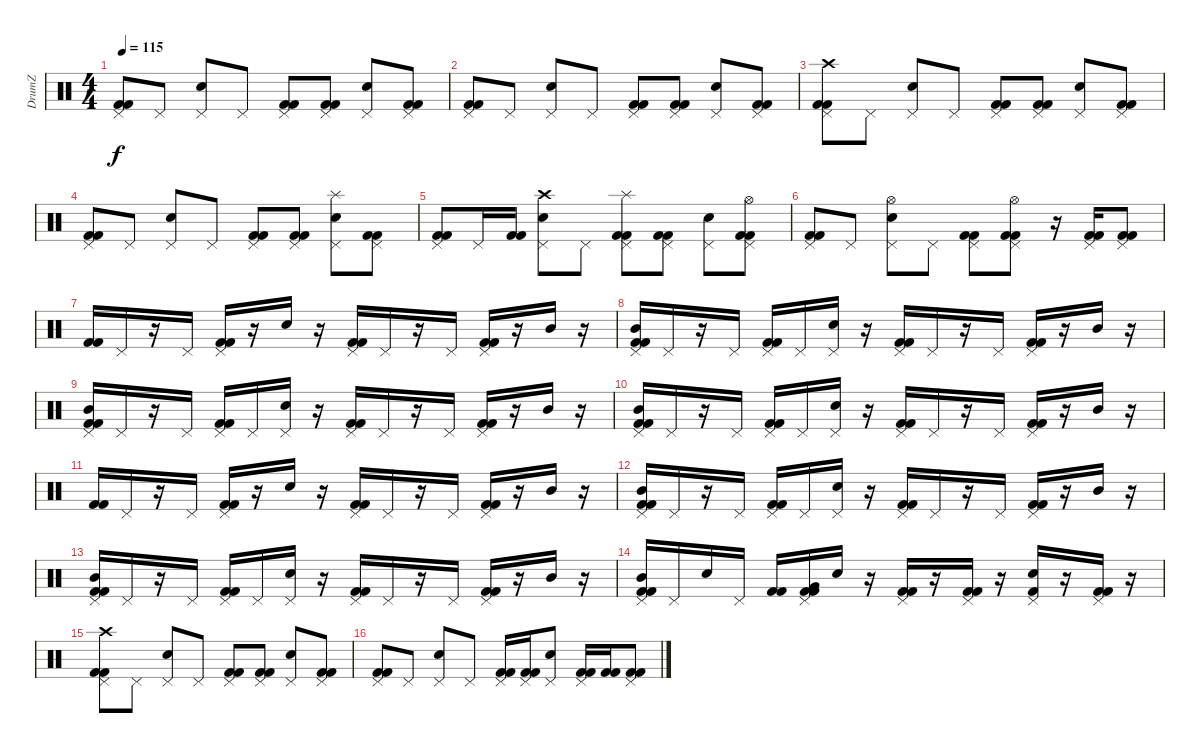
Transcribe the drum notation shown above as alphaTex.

\track ("DrumZ" "DrumZ") {instrument percussion}
\staff {score}
\articulation defaults
\ts (4 4)
\tempo 115
\clef neutral
\ks c
("Pedal Hi-Hat (hit)" "Kick (hit) 2" "Kick (hit) 2").8{dy f} "Pedal Hi-Hat (hit)".8 ("Pedal Hi-Hat (hit)" "Electric Snare (hit)").8 "Pedal Hi-Hat (hit)".8 ("Pedal Hi-Hat (hit)" "Kick (hit) 2" "Kick (hit) 2").8 ("Pedal Hi-Hat (hit)" "Kick (hit) 2" "Kick (hit) 2").8 ("Pedal Hi-Hat (hit)" "Electric Snare (hit)").8 ("Pedal Hi-Hat (hit)" "Kick (hit) 2" "Kick (hit) 2").8 |
("Pedal Hi-Hat (hit)" "Kick (hit) 2" "Kick (hit) 2").8 "Pedal Hi-Hat (hit)".8 ("Pedal Hi-Hat (hit)" "Electric Snare (hit)").8 "Pedal Hi-Hat (hit)".8 ("Pedal Hi-Hat (hit)" "Kick (hit) 2" "Kick (hit) 2").8 ("Pedal Hi-Hat (hit)" "Kick (hit) 2" "Kick (hit) 2").8 ("Pedal Hi-Hat (hit)" "Electric Snare (hit)").8 ("Pedal Hi-Hat (hit)" "Kick (hit) 2" "Kick (hit) 2").8 |
("Pedal Hi-Hat (hit)" "Crash high (hit)" "Kick (hit) 2" "Kick (hit) 2").8 "Pedal Hi-Hat (hit)".8 ("Pedal Hi-Hat (hit)" "Electric Snare (hit)").8 "Pedal Hi-Hat (hit)".8 ("Pedal Hi-Hat (hit)" "Kick (hit) 2" "Kick (hit) 2").8 ("Pedal Hi-Hat (hit)" "Kick (hit) 2" "Kick (hit) 2").8 ("Pedal Hi-Hat (hit)" "Electric Snare (hit)").8 ("Pedal Hi-Hat (hit)" "Kick (hit) 2" "Kick (hit) 2").8 |
("Pedal Hi-Hat (hit)" "Kick (hit) 2" "Kick (hit) 2").8 "Pedal Hi-Hat (hit)".8 ("Pedal Hi-Hat (hit)" "Electric Snare (hit)").8 "Pedal Hi-Hat (hit)".8 ("Pedal Hi-Hat (hit)" "Kick (hit) 2" "Kick (hit) 2").8 ("Pedal Hi-Hat (hit)" "Kick (hit) 2" "Kick (hit) 2").8 ("Pedal Hi-Hat (hit)" "Electric Snare (hit)" "Splash (hit)").8 ("Pedal Hi-Hat (hit)" "Kick (hit) 2" "Kick (hit) 2").8 |
("Pedal Hi-Hat (hit)" "Kick (hit) 2" "Kick (hit) 2").8 "Pedal Hi-Hat (hit)".16 ("Kick (hit) 2" "Kick (hit) 2").16 ("Pedal Hi-Hat (hit)" "Electric Snare (hit)" "Crash high (hit)").8 "Pedal Hi-Hat (hit)".8 ("Pedal Hi-Hat (hit)" "Splash (hit)" "Kick (hit) 2" "Kick (hit) 2").8 ("Pedal Hi-Hat (hit)" "Kick (hit) 2" "Kick (hit) 2").8 ("Pedal Hi-Hat (hit)" "Electric Snare (hit)").8 ("Pedal Hi-Hat (hit)" "Hi-Hat (open)" "Kick (hit) 2" "Kick (hit) 2").8 |
("Pedal Hi-Hat (hit)" "Kick (hit) 2" "Kick (hit) 2").8 "Pedal Hi-Hat (hit)".8 ("Pedal Hi-Hat (hit)" "Electric Snare (hit)" "Hi-Hat (open)").8 "Pedal Hi-Hat (hit)".8 ("Pedal Hi-Hat (hit)" "Kick (hit) 2" "Kick (hit) 2").8 ("Pedal Hi-Hat (hit)" "Hi-Hat (open)" "Kick (hit) 2" "Kick (hit) 2").8 r.16 ("Pedal Hi-Hat (hit)" "Kick (hit) 2" "Kick (hit) 2").16 ("Pedal Hi-Hat (hit)" "Kick (hit) 2" "Kick (hit) 2").8 |
("Kick (hit) 2" "Kick (hit) 2").16 "Pedal Hi-Hat (hit)".16 r.16 "Pedal Hi-Hat (hit)".16 ("Pedal Hi-Hat (hit)" "Kick (hit) 2" "Kick (hit) 2").16 r.16 "Electric Snare (hit)".16 r.16 ("Pedal Hi-Hat (hit)" "Kick (hit) 2" "Kick (hit) 2").16 "Pedal Hi-Hat (hit)".16 r.16 "Pedal Hi-Hat (hit)".16 ("Pedal Hi-Hat (hit)" "Kick (hit) 2" "Kick (hit) 2").16 r.16 "Mid Tom (hit)".16 r.16 |
("Pedal Hi-Hat (hit)" "Mid Tom (hit)" "Kick (hit) 2" "Kick (hit) 2").16 "Pedal Hi-Hat (hit)".16 r.16 "Pedal Hi-Hat (hit)".16 ("Pedal Hi-Hat (hit)" "Kick (hit) 2" "Kick (hit) 2").16 "Pedal Hi-Hat (hit)".16 ("Pedal Hi-Hat (hit)" "Electric Snare (hit)").16 r.16 ("Pedal Hi-Hat (hit)" "Kick (hit) 2" "Kick (hit) 2").16 "Pedal Hi-Hat (hit)".16 r.16 "Pedal Hi-Hat (hit)".16 ("Pedal Hi-Hat (hit)" "Kick (hit) 2" "Kick (hit) 2").16 r.16 "Mid Tom (hit)".16 r.16 |
("Pedal Hi-Hat (hit)" "Mid Tom (hit)" "Kick (hit) 2" "Kick (hit) 2").16 "Pedal Hi-Hat (hit)".16 r.16 "Pedal Hi-Hat (hit)".16 ("Pedal Hi-Hat (hit)" "Kick (hit) 2" "Kick (hit) 2").16 "Pedal Hi-Hat (hit)".16 ("Pedal Hi-Hat (hit)" "Electric Snare (hit)").16 r.16 ("Pedal Hi-Hat (hit)" "Kick (hit) 2" "Kick (hit) 2").16 "Pedal Hi-Hat (hit)".16 r.16 "Pedal Hi-Hat (hit)".16 ("Pedal Hi-Hat (hit)" "Kick (hit) 2" "Kick (hit) 2").16 r.16 "Mid Tom (hit)".16 r.16 |
("Pedal Hi-Hat (hit)" "Mid Tom (hit)" "Kick (hit) 2" "Kick (hit) 2").16 "Pedal Hi-Hat (hit)".16 r.16 "Pedal Hi-Hat (hit)".16 ("Pedal Hi-Hat (hit)" "Kick (hit) 2" "Kick (hit) 2").16 "Pedal Hi-Hat (hit)".16 ("Pedal Hi-Hat (hit)" "Electric Snare (hit)").16 r.16 ("Pedal Hi-Hat (hit)" "Kick (hit) 2" "Kick (hit) 2").16 "Pedal Hi-Hat (hit)".16 r.16 "Pedal Hi-Hat (hit)".16 ("Pedal Hi-Hat (hit)" "Kick (hit) 2" "Kick (hit) 2").16 r.16 "Mid Tom (hit)".16 r.16 |
("Kick (hit) 2" "Kick (hit) 2").16 "Pedal Hi-Hat (hit)".16 r.16 "Pedal Hi-Hat (hit)".16 ("Pedal Hi-Hat (hit)" "Kick (hit) 2" "Kick (hit) 2").16 r.16 "Electric Snare (hit)".16 r.16 ("Pedal Hi-Hat (hit)" "Kick (hit) 2" "Kick (hit) 2").16 "Pedal Hi-Hat (hit)".16 r.16 "Pedal Hi-Hat (hit)".16 ("Pedal Hi-Hat (hit)" "Kick (hit) 2" "Kick (hit) 2").16 r.16 "Mid Tom (hit)".16 r.16 |
("Pedal Hi-Hat (hit)" "Mid Tom (hit)" "Kick (hit) 2" "Kick (hit) 2").16 "Pedal Hi-Hat (hit)".16 r.16 "Pedal Hi-Hat (hit)".16 ("Pedal Hi-Hat (hit)" "Kick (hit) 2" "Kick (hit) 2").16 "Pedal Hi-Hat (hit)".16 ("Pedal Hi-Hat (hit)" "Electric Snare (hit)").16 r.16 ("Pedal Hi-Hat (hit)" "Kick (hit) 2" "Kick (hit) 2").16 "Pedal Hi-Hat (hit)".16 r.16 "Pedal Hi-Hat (hit)".16 ("Pedal Hi-Hat (hit)" "Kick (hit) 2" "Kick (hit) 2").16 r.16 "Mid Tom (hit)".16 r.16 |
("Pedal Hi-Hat (hit)" "Mid Tom (hit)" "Kick (hit) 2" "Kick (hit) 2").16 "Pedal Hi-Hat (hit)".16 r.16 "Pedal Hi-Hat (hit)".16 ("Pedal Hi-Hat (hit)" "Kick (hit) 2" "Kick (hit) 2").16 "Pedal Hi-Hat (hit)".16 ("Pedal Hi-Hat (hit)" "Electric Snare (hit)").16 r.16 ("Pedal Hi-Hat (hit)" "Kick (hit) 2" "Kick (hit) 2").16 "Pedal Hi-Hat (hit)".16 r.16 "Pedal Hi-Hat (hit)".16 ("Pedal Hi-Hat (hit)" "Kick (hit) 2" "Kick (hit) 2").16 r.16 "Mid Tom (hit)".16 r.16 |
("Pedal Hi-Hat (hit)" "Mid Tom (hit)" "Kick (hit) 2" "Kick (hit) 2").16 "Pedal Hi-Hat (hit)".16 "Electric Snare (hit)".16 "Pedal Hi-Hat (hit)".16 ("Kick (hit) 2" "Kick (hit) 2").16 ("Pedal Hi-Hat (hit)" "Kick (hit) 2" "Kick (hit) 2" "Very Low Tom (hit)").16 "Electric Snare (hit)".16 r.16 ("Pedal Hi-Hat (hit)" "Kick (hit) 2" "Kick (hit) 2").16 r.16 ("Pedal Hi-Hat (hit)" "Kick (hit) 2" "Kick (hit) 2").16 r.16 ("Pedal Hi-Hat (hit)" "Electric Snare (hit)" "Kick (hit) 2").16 r.16 ("Pedal Hi-Hat (hit)" "Kick (hit) 2" "Kick (hit) 2").16 r.16 |
("Pedal Hi-Hat (hit)" "Crash high (hit)" "Kick (hit) 2" "Kick (hit) 2").8 "Pedal Hi-Hat (hit)".8 ("Pedal Hi-Hat (hit)" "Electric Snare (hit)").8 "Pedal Hi-Hat (hit)".8 ("Pedal Hi-Hat (hit)" "Kick (hit) 2" "Kick (hit) 2").8 ("Pedal Hi-Hat (hit)" "Kick (hit) 2" "Kick (hit) 2").8 ("Pedal Hi-Hat (hit)" "Electric Snare (hit)").8 ("Pedal Hi-Hat (hit)" "Kick (hit) 2" "Kick (hit) 2").8 |
("Pedal Hi-Hat (hit)" "Kick (hit) 2" "Kick (hit) 2").8 "Pedal Hi-Hat (hit)".8 ("Pedal Hi-Hat (hit)" "Electric Snare (hit)").8 "Pedal Hi-Hat (hit)".8 ("Pedal Hi-Hat (hit)" "Kick (hit) 2" "Kick (hit) 2").16 ("Pedal Hi-Hat (hit)" "Kick (hit) 2" "Kick (hit) 2").16 ("Pedal Hi-Hat (hit)" "Electric Snare (hit)").8 ("Pedal Hi-Hat (hit)" "Kick (hit) 2" "Kick (hit) 2").16 ("Kick (hit) 2" "Kick (hit) 2").16 ("Pedal Hi-Hat (hit)" "Kick (hit) 2" "Kick (hit) 2").8
